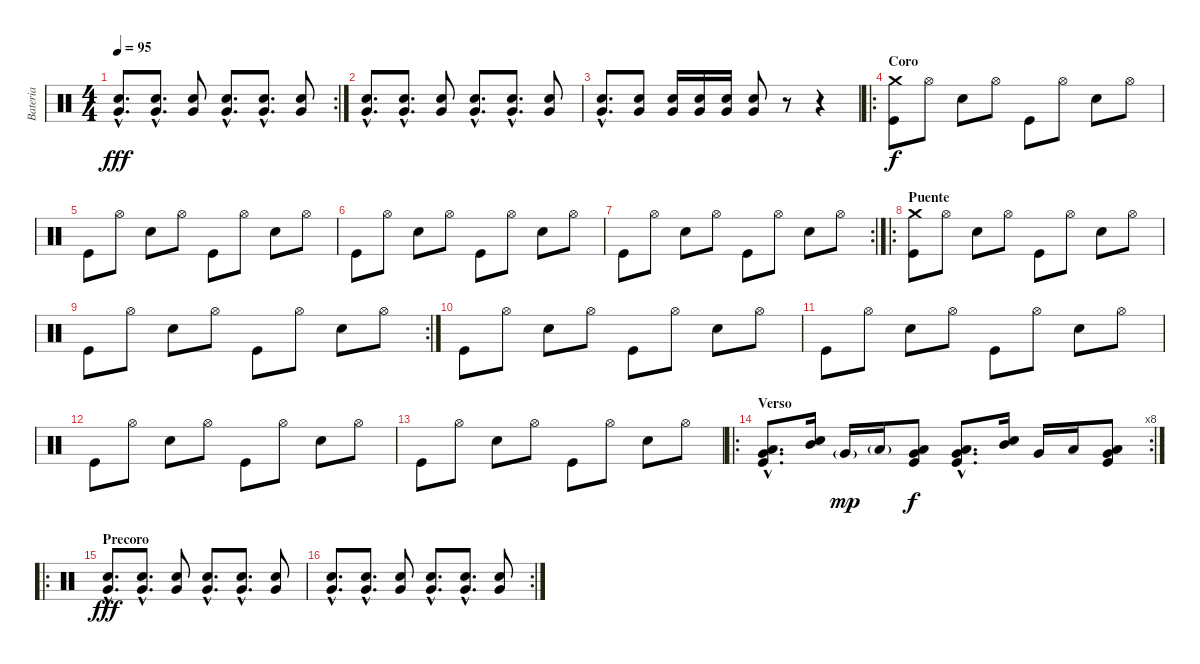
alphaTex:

\track ("Bateria" "Bateria") {instrument percussion}
\staff {score}
\articulation defaults
\rc 2
\ts (4 4)
\tempo 95
\clef neutral
\ks c
("Very Low Tom (hit)"{hac} "Electric Snare (hit)"{hac}).8{d dy fff} ("Very Low Tom (hit)"{hac} "Electric Snare (hit)"{hac}).8{d} ("Very Low Tom (hit)" "Electric Snare (hit)").8 ("Very Low Tom (hit)"{hac} "Electric Snare (hit)"{hac}).8{d} ("Very Low Tom (hit)"{hac} "Electric Snare (hit)"{hac}).8{d} ("Very Low Tom (hit)" "Electric Snare (hit)").8 |
("Very Low Tom (hit)"{hac} "Electric Snare (hit)"{hac}).8{d} ("Very Low Tom (hit)"{hac} "Electric Snare (hit)"{hac}).8{d} ("Very Low Tom (hit)" "Electric Snare (hit)").8 ("Very Low Tom (hit)"{hac} "Electric Snare (hit)"{hac}).8{d} ("Very Low Tom (hit)"{hac} "Electric Snare (hit)"{hac}).8{d} ("Very Low Tom (hit)" "Electric Snare (hit)").8 |
("Very Low Tom (hit)"{hac} "Electric Snare (hit)"{hac}).8{d} ("Very Low Tom (hit)" "Electric Snare (hit)").8 ("Very Low Tom (hit)" "Electric Snare (hit)").16 ("Very Low Tom (hit)" "Electric Snare (hit)").16 ("Very Low Tom (hit)" "Electric Snare (hit)").16 ("Very Low Tom (hit)" "Electric Snare (hit)").8 r.8 r.4 |
\ro
\section ("" "Coro")
("Crash medium (hit)" "Kick (hit)").8{dy f} "Hi-Hat (open)".8 "Electric Snare (hit)".8 "Hi-Hat (open)".8 "Kick (hit)".8 "Hi-Hat (open)".8 "Electric Snare (hit)".8 "Hi-Hat (open)".8 |
"Kick (hit)".8 "Hi-Hat (open)".8 "Electric Snare (hit)".8 "Hi-Hat (open)".8 "Kick (hit)".8 "Hi-Hat (open)".8 "Electric Snare (hit)".8 "Hi-Hat (open)".8 |
"Kick (hit)".8 "Hi-Hat (open)".8 "Electric Snare (hit)".8 "Hi-Hat (open)".8 "Kick (hit)".8 "Hi-Hat (open)".8 "Electric Snare (hit)".8 "Hi-Hat (open)".8 |
\rc 2 "Kick (hit)".8 "Hi-Hat (open)".8 "Electric Snare (hit)".8 "Hi-Hat (open)".8 "Kick (hit)".8 "Hi-Hat (open)".8 "Electric Snare (hit)".8 "Hi-Hat (open)".8
|
\ro
\section ("" "Puente")
("Crash medium (hit)" "Kick (hit)").8 "Hi-Hat (open)".8 "Electric Snare (hit)".8 "Hi-Hat (open)".8 "Kick (hit)".8 "Hi-Hat (open)".8 "Electric Snare (hit)".8 "Hi-Hat (open)".8 |
\rc 2 "Kick (hit)".8 "Hi-Hat (open)".8 "Electric Snare (hit)".8 "Hi-Hat (open)".8 "Kick (hit)".8 "Hi-Hat (open)".8 "Electric Snare (hit)".8 "Hi-Hat (open)".8
|
"Kick (hit)".8 "Hi-Hat (open)".8 "Electric Snare (hit)".8 "Hi-Hat (open)".8 "Kick (hit)".8 "Hi-Hat (open)".8 "Electric Snare (hit)".8 "Hi-Hat (open)".8 |
"Kick (hit)".8 "Hi-Hat (open)".8 "Electric Snare (hit)".8 "Hi-Hat (open)".8 "Kick (hit)".8 "Hi-Hat (open)".8 "Electric Snare (hit)".8 "Hi-Hat (open)".8 |
"Kick (hit)".8 "Hi-Hat (open)".8 "Electric Snare (hit)".8 "Hi-Hat (open)".8 "Kick (hit)".8 "Hi-Hat (open)".8 "Electric Snare (hit)".8 "Hi-Hat (open)".8 |
"Kick (hit)".8 "Hi-Hat (open)".8 "Electric Snare (hit)".8 "Hi-Hat (open)".8 "Kick (hit)".8 "Hi-Hat (open)".8 "Electric Snare (hit)".8 "Hi-Hat (open)".8 |
\ro
\rc 8
\section ("" "Verso")
("Low Floor Tom (hit)"{hac} "Very Low Tom (hit)"{hac} "Kick (hit)"{hac}).8{d} ("Mid Tom (hit)" "Electric Snare (hit)").16 "Very Low Tom (hit)"{g}.16{dy mp} "Low Floor Tom (hit)"{g}.16 ("Low Floor Tom (hit)" "Very Low Tom (hit)" "Kick (hit)").8{dy f} ("Low Floor Tom (hit)"{hac} "Very Low Tom (hit)"{hac} "Kick (hit)"{hac}).8{d} ("Mid Tom (hit)" "Electric Snare (hit)").16 "Very Low Tom (hit)".16 "Low Floor Tom (hit)".16 ("Low Floor Tom (hit)" "Very Low Tom (hit)" "Kick (hit)").8 |
\ro
\section ("" "Precoro")
("Very Low Tom (hit)"{hac} "Electric Snare (hit)"{hac}).8{d dy fff} ("Very Low Tom (hit)"{hac} "Electric Snare (hit)"{hac}).8{d} ("Very Low Tom (hit)" "Electric Snare (hit)").8 ("Very Low Tom (hit)"{hac} "Electric Snare (hit)"{hac}).8{d} ("Very Low Tom (hit)"{hac} "Electric Snare (hit)"{hac}).8{d} ("Very Low Tom (hit)" "Electric Snare (hit)").8 |
\rc 2
("Very Low Tom (hit)"{hac} "Electric Snare (hit)"{hac}).8{d} ("Very Low Tom (hit)"{hac} "Electric Snare (hit)"{hac}).8{d} ("Very Low Tom (hit)" "Electric Snare (hit)").8 ("Very Low Tom (hit)"{hac} "Electric Snare (hit)"{hac}).8{d} ("Very Low Tom (hit)"{hac} "Electric Snare (hit)"{hac}).8{d} ("Very Low Tom (hit)" "Electric Snare (hit)").8
